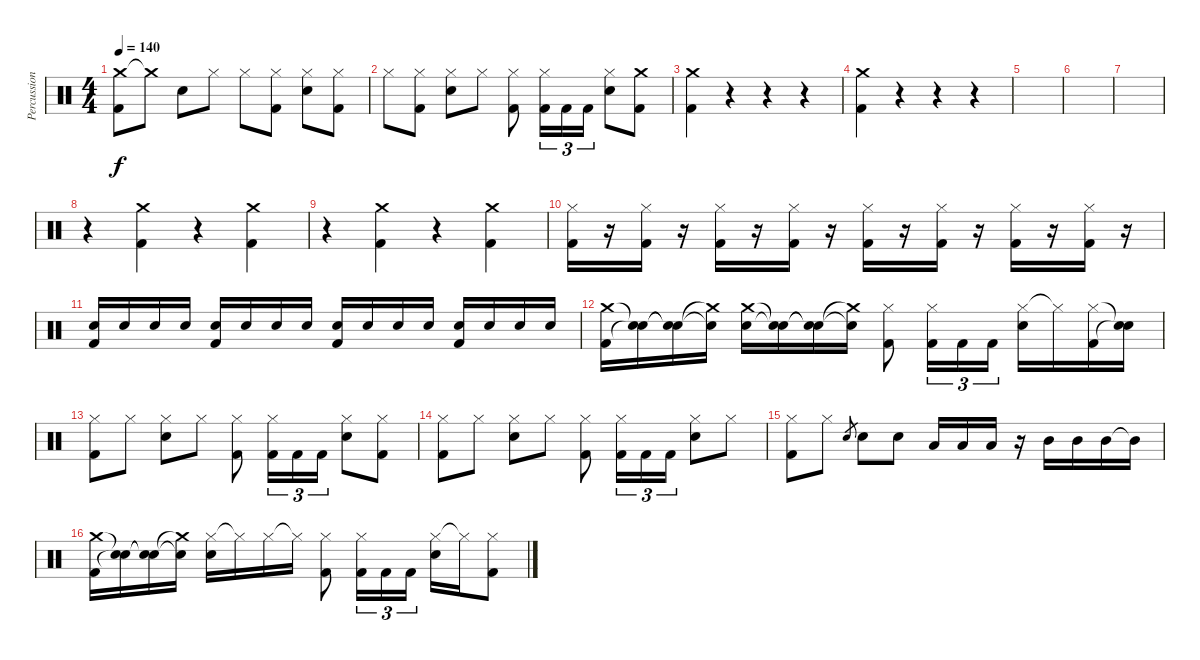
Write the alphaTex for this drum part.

\track ("Percussion" "Percussion") {instrument percussion}
\staff {score}
\articulation defaults
\ts (4 4)
\tempo 140
\clef neutral
\ks c
("Crash medium (hit)" "Kick (hit) 2").8{dy f} "Crash medium (hit)"{t}.8 "Snare (hit) 2".8 "Hi-Hat (closed)".8 "Hi-Hat (closed)".8 ("Hi-Hat (closed)" "Kick (hit) 2").8 ("Hi-Hat (closed)" "Snare (hit) 2").8 ("Hi-Hat (closed)" "Kick (hit) 2").8 |
"Hi-Hat (closed)".8 ("Hi-Hat (closed)" "Kick (hit) 2").8 ("Hi-Hat (closed)" "Snare (hit) 2").8 "Hi-Hat (closed)".8 ("Hi-Hat (closed)" "Kick (hit) 2").8 ("Hi-Hat (closed)" "Kick (hit) 2").16{tu (3 2)} "Kick (hit) 2".16{tu (3 2)} "Kick (hit) 2".16{tu (3 2)} ("Hi-Hat (closed)" "Snare (hit) 2").8 ("Crash medium (hit)" "Kick (hit) 2").8 |
("Crash medium (hit)" "Kick (hit) 2").4 r.4 r.4 r.4 |
("Crash medium (hit)" "Kick (hit) 2").4 r.4 r.4 r.4 |
|
|
|
r.4 ("Crash medium (hit)" "Kick (hit) 2").4 r.4 ("Crash medium (hit)" "Kick (hit) 2").4 |
r.4 ("Crash medium (hit)" "Kick (hit) 2").4 r.4 ("Crash medium (hit)" "Kick (hit) 2").4 |
("Hi-Hat (closed)" "Kick (hit) 2").16 r.16 ("Hi-Hat (closed)" "Kick (hit) 2").16 r.16 ("Hi-Hat (closed)" "Kick (hit) 2").16 r.16 ("Hi-Hat (closed)" "Kick (hit) 2").16 r.16 ("Hi-Hat (closed)" "Kick (hit) 2").16 r.16 ("Hi-Hat (closed)" "Kick (hit) 2").16 r.16 ("Hi-Hat (closed)" "Kick (hit) 2").16 r.16 ("Hi-Hat (closed)" "Kick (hit) 2").16 r.16 |
("Snare (hit) 2" "Kick (hit) 2").16 "Snare (hit) 2".16 "Snare (hit) 2".16 "Snare (hit) 2".16 ("Snare (hit) 2" "Kick (hit) 2").16 "Snare (hit) 2".16 "Snare (hit) 2".16 "Snare (hit) 2".16 ("Snare (hit) 2" "Kick (hit) 2").16 "Snare (hit) 2".16 "Snare (hit) 2".16 "Snare (hit) 2".16 ("Snare (hit) 2" "Kick (hit) 2").16 "Snare (hit) 2".16 "Snare (hit) 2".16 "Snare (hit) 2".16 |
("Crash medium (hit)" "Kick (hit) 2").16 ("Snare (hit)"{t} "Snare (hit)"{t}).16 ("Snare (hit)"{t} "Snare (hit)"{t}).16 ("Crash medium (hit)"{t} "Snare (hit)"{t}).16 ("Crash medium (hit)" "Snare (hit) 2").16 ("Snare (hit)"{t} "Snare (hit)"{t}).16 ("Snare (hit)"{t} "Snare (hit)"{t}).16 ("Crash medium (hit)"{t} "Snare (hit)"{t}).16 ("Hi-Hat (closed)" "Kick (hit) 2").8 ("Hi-Hat (closed)" "Kick (hit) 2").16{tu (3 2)} "Kick (hit) 2".16{tu (3 2)} "Kick (hit) 2".16{tu (3 2)} ("Hi-Hat (closed)" "Snare (hit) 2").16 "Hi-Hat (closed)"{t}.16 ("Hi-Hat (closed)" "Kick (hit) 2").16 ("Snare (hit)"{t} "Snare (hit)"{t}).16 |
("Hi-Hat (closed)" "Kick (hit) 2").8 "Hi-Hat (closed)".8 ("Hi-Hat (closed)" "Snare (hit) 2").8 "Hi-Hat (closed)".8 ("Hi-Hat (closed)" "Kick (hit) 2").8 ("Hi-Hat (closed)" "Kick (hit) 2").16{tu (3 2)} "Kick (hit) 2".16{tu (3 2)} "Kick (hit) 2".16{tu (3 2)} ("Hi-Hat (closed)" "Snare (hit) 2").8 ("Hi-Hat (closed)" "Kick (hit) 2").8 |
("Hi-Hat (closed)" "Kick (hit) 2").8 "Hi-Hat (closed)".8 ("Hi-Hat (closed)" "Snare (hit) 2").8 "Hi-Hat (closed)".8 ("Hi-Hat (closed)" "Kick (hit) 2").8 ("Hi-Hat (closed)" "Kick (hit) 2").16{tu (3 2)} "Kick (hit) 2".16{tu (3 2)} "Kick (hit) 2".16{tu (3 2)} ("Hi-Hat (closed)" "Snare (hit) 2").8 "Hi-Hat (closed)".8 |
("Hi-Hat (closed)" "Kick (hit) 2").8 "Hi-Hat (closed)".8 "Snare (hit) 2".8{gr} "Snare (hit) 2".8 "Snare (hit) 2".8 "Low Tom (hit)".16 "Low Tom (hit)".16 "Low Tom (hit)".16 r.16 "Mid Tom (hit)".16 "Mid Tom (hit)".16 "Mid Tom (hit)".16 "Mid Tom (hit)"{t}.16 |
("Crash medium (hit)" "Kick (hit) 2").16 ("Snare (hit)"{t} "Snare (hit)"{t}).16 ("Snare (hit)"{t} "Snare (hit)"{t}).16 ("Crash medium (hit)"{t} "Snare (hit)"{t}).16 ("Hi-Hat (closed)" "Snare (hit) 2").16 "Hi-Hat (closed)"{t}.16 "Hi-Hat (closed)".16 "Hi-Hat (closed)"{t}.16 ("Hi-Hat (closed)" "Kick (hit) 2").8 ("Hi-Hat (closed)" "Kick (hit) 2").16{tu (3 2)} "Kick (hit) 2".16{tu (3 2)} "Kick (hit) 2".16{tu (3 2)} ("Hi-Hat (closed)" "Snare (hit) 2").16 "Hi-Hat (closed)"{t}.16 ("Hi-Hat (closed)" "Kick (hit) 2").8
